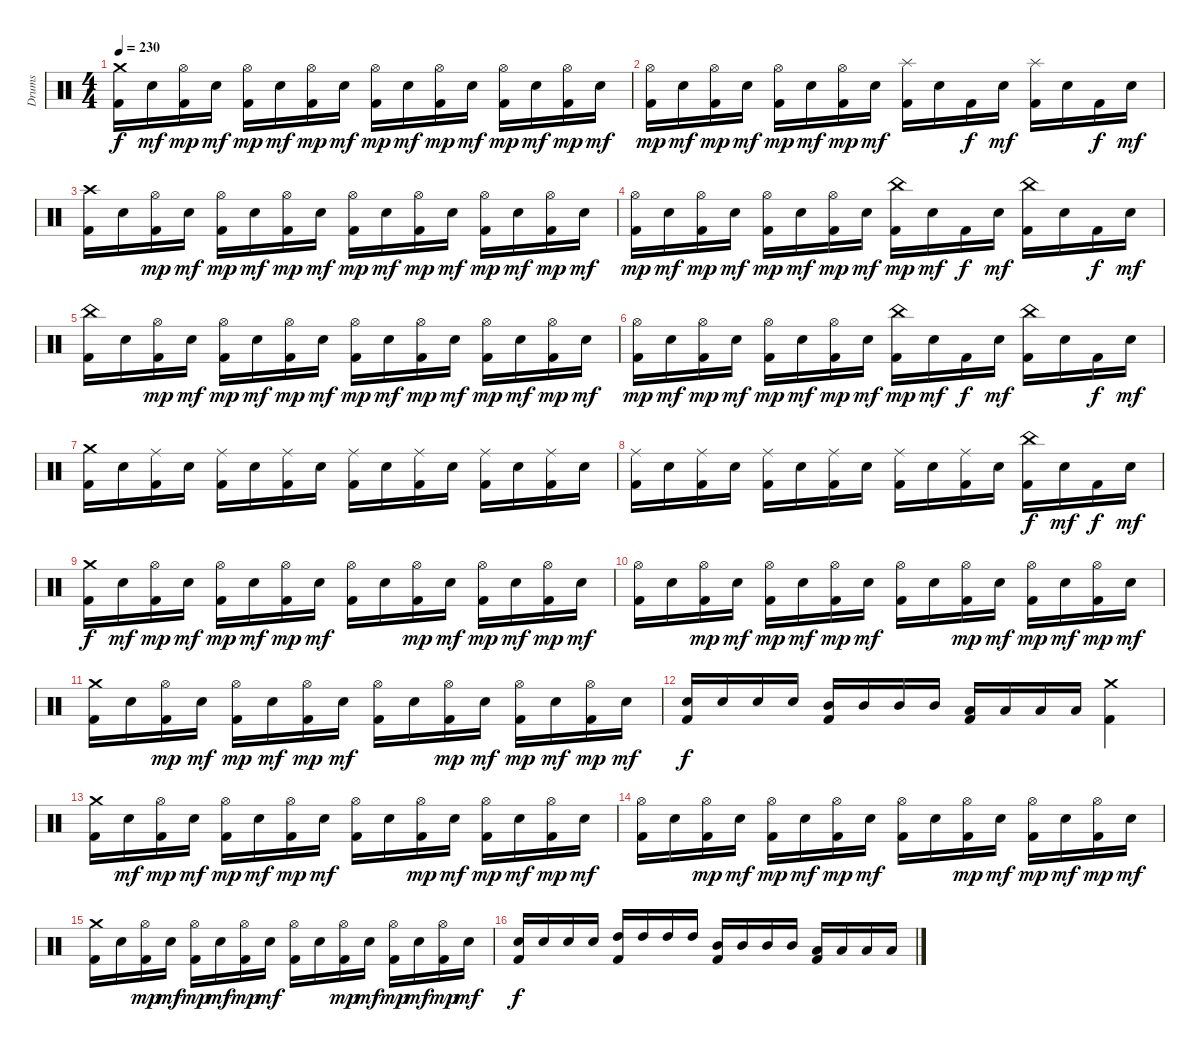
\track ("Drums" "Drums") {instrument percussion}
\staff {score}
\articulation defaults
\ts (4 4)
\tempo 230
\clef neutral
\ks c
("Crash medium (hit)" "Kick (hit) 2").16{dy f} "Electric Snare (hit)".16{dy mf} ("Hi-Hat (open)" "Kick (hit) 2").16{dy mp} "Electric Snare (hit)".16{dy mf} ("Hi-Hat (open)" "Kick (hit) 2").16{dy mp} "Electric Snare (hit)".16{dy mf} ("Hi-Hat (open)" "Kick (hit) 2").16{dy mp} "Electric Snare (hit)".16{dy mf} ("Hi-Hat (open)" "Kick (hit) 2").16{dy mp} "Electric Snare (hit)".16{dy mf} ("Hi-Hat (open)" "Kick (hit) 2").16{dy mp} "Electric Snare (hit)".16{dy mf} ("Hi-Hat (open)" "Kick (hit) 2").16{dy mp} "Electric Snare (hit)".16{dy mf} ("Hi-Hat (open)" "Kick (hit) 2").16{dy mp} "Electric Snare (hit)".16{dy mf} |
("Hi-Hat (open)" "Kick (hit) 2").16{dy mp} "Electric Snare (hit)".16{dy mf} ("Hi-Hat (open)" "Kick (hit) 2").16{dy mp} "Electric Snare (hit)".16{dy mf} ("Hi-Hat (open)" "Kick (hit) 2").16{dy mp} "Electric Snare (hit)".16{dy mf} ("Hi-Hat (open)" "Kick (hit) 2").16{dy mp} "Electric Snare (hit)".16{dy mf} ("Splash (hit)" "Kick (hit) 2").16 "Electric Snare (hit)".16 "Kick (hit) 2".16{dy f} "Electric Snare (hit)".16{dy mf} ("Splash (hit)" "Kick (hit) 2").16 "Electric Snare (hit)".16 "Kick (hit) 2".16{dy f} "Electric Snare (hit)".16{dy mf} |
("Crash high (hit)" "Kick (hit) 2").16 "Electric Snare (hit)".16 ("Hi-Hat (open)" "Kick (hit) 2").16{dy mp} "Electric Snare (hit)".16{dy mf} ("Hi-Hat (open)" "Kick (hit) 2").16{dy mp} "Electric Snare (hit)".16{dy mf} ("Hi-Hat (open)" "Kick (hit) 2").16{dy mp} "Electric Snare (hit)".16{dy mf} ("Hi-Hat (open)" "Kick (hit) 2").16{dy mp} "Electric Snare (hit)".16{dy mf} ("Hi-Hat (open)" "Kick (hit) 2").16{dy mp} "Electric Snare (hit)".16{dy mf} ("Hi-Hat (open)" "Kick (hit) 2").16{dy mp} "Electric Snare (hit)".16{dy mf} ("Hi-Hat (open)" "Kick (hit) 2").16{dy mp} "Electric Snare (hit)".16{dy mf} |
("Hi-Hat (open)" "Kick (hit) 2").16{dy mp} "Electric Snare (hit)".16{dy mf} ("Hi-Hat (open)" "Kick (hit) 2").16{dy mp} "Electric Snare (hit)".16{dy mf} ("Hi-Hat (open)" "Kick (hit) 2").16{dy mp} "Electric Snare (hit)".16{dy mf} ("Hi-Hat (open)" "Kick (hit) 2").16{dy mp} "Electric Snare (hit)".16{dy mf} ("China (hit)" "Kick (hit) 2").16{dy mp} "Electric Snare (hit)".16{dy mf} "Kick (hit) 2".16{dy f} "Electric Snare (hit)".16{dy mf} ("China (hit)" "Kick (hit) 2").16 "Electric Snare (hit)".16 "Kick (hit) 2".16{dy f} "Electric Snare (hit)".16{dy mf} |
("China (hit)" "Kick (hit) 2").16 "Electric Snare (hit)".16 ("Hi-Hat (open)" "Kick (hit) 2").16{dy mp} "Electric Snare (hit)".16{dy mf} ("Hi-Hat (open)" "Kick (hit) 2").16{dy mp} "Electric Snare (hit)".16{dy mf} ("Hi-Hat (open)" "Kick (hit) 2").16{dy mp} "Electric Snare (hit)".16{dy mf} ("Hi-Hat (open)" "Kick (hit) 2").16{dy mp} "Electric Snare (hit)".16{dy mf} ("Hi-Hat (open)" "Kick (hit) 2").16{dy mp} "Electric Snare (hit)".16{dy mf} ("Hi-Hat (open)" "Kick (hit) 2").16{dy mp} "Electric Snare (hit)".16{dy mf} ("Hi-Hat (open)" "Kick (hit) 2").16{dy mp} "Electric Snare (hit)".16{dy mf} |
("Hi-Hat (open)" "Kick (hit) 2").16{dy mp} "Electric Snare (hit)".16{dy mf} ("Hi-Hat (open)" "Kick (hit) 2").16{dy mp} "Electric Snare (hit)".16{dy mf} ("Hi-Hat (open)" "Kick (hit) 2").16{dy mp} "Electric Snare (hit)".16{dy mf} ("Hi-Hat (open)" "Kick (hit) 2").16{dy mp} "Electric Snare (hit)".16{dy mf} ("China (hit)" "Kick (hit) 2").16{dy mp} "Electric Snare (hit)".16{dy mf} "Kick (hit) 2".16{dy f} "Electric Snare (hit)".16{dy mf} ("China (hit)" "Kick (hit) 2").16 "Electric Snare (hit)".16 "Kick (hit) 2".16{dy f} "Electric Snare (hit)".16{dy mf} |
("Crash medium (hit)" "Kick (hit) 2").16 "Electric Snare (hit)".16 ("Ride (middle)" "Kick (hit) 2").16 "Electric Snare (hit)".16 ("Ride (middle)" "Kick (hit) 2").16 "Electric Snare (hit)".16 ("Ride (middle)" "Kick (hit) 2").16 "Electric Snare (hit)".16 ("Ride (middle)" "Kick (hit) 2").16 "Electric Snare (hit)".16 ("Ride (middle)" "Kick (hit) 2").16 "Electric Snare (hit)".16 ("Ride (middle)" "Kick (hit) 2").16 "Electric Snare (hit)".16 ("Ride (middle)" "Kick (hit) 2").16 "Electric Snare (hit)".16 |
("Ride (middle)" "Kick (hit) 2").16 "Electric Snare (hit)".16 ("Ride (middle)" "Kick (hit) 2").16 "Electric Snare (hit)".16 ("Ride (middle)" "Kick (hit) 2").16 "Electric Snare (hit)".16 ("Ride (middle)" "Kick (hit) 2").16 "Electric Snare (hit)".16 ("Ride (middle)" "Kick (hit) 2").16 "Electric Snare (hit)".16 ("Ride (middle)" "Kick (hit) 2").16 "Electric Snare (hit)".16 ("China (hit)" "Kick (hit) 2").16{dy f} "Electric Snare (hit)".16{dy mf} "Kick (hit) 2".16{dy f} "Electric Snare (hit)".16{dy mf} |
("Crash medium (hit)" "Kick (hit) 2").16{dy f} "Electric Snare (hit)".16{dy mf} ("Hi-Hat (open)" "Kick (hit) 2").16{dy mp} "Electric Snare (hit)".16{dy mf} ("Hi-Hat (open)" "Kick (hit) 2").16{dy mp} "Electric Snare (hit)".16{dy mf} ("Hi-Hat (open)" "Kick (hit) 2").16{dy mp} "Electric Snare (hit)".16{dy mf} ("Hi-Hat (open)" "Kick (hit) 2").16 "Electric Snare (hit)".16 ("Hi-Hat (open)" "Kick (hit) 2").16{dy mp} "Electric Snare (hit)".16{dy mf} ("Hi-Hat (open)" "Kick (hit) 2").16{dy mp} "Electric Snare (hit)".16{dy mf} ("Hi-Hat (open)" "Kick (hit) 2").16{dy mp} "Electric Snare (hit)".16{dy mf} |
("Hi-Hat (open)" "Kick (hit) 2").16 "Electric Snare (hit)".16 ("Hi-Hat (open)" "Kick (hit) 2").16{dy mp} "Electric Snare (hit)".16{dy mf} ("Hi-Hat (open)" "Kick (hit) 2").16{dy mp} "Electric Snare (hit)".16{dy mf} ("Hi-Hat (open)" "Kick (hit) 2").16{dy mp} "Electric Snare (hit)".16{dy mf} ("Hi-Hat (open)" "Kick (hit) 2").16 "Electric Snare (hit)".16 ("Hi-Hat (open)" "Kick (hit) 2").16{dy mp} "Electric Snare (hit)".16{dy mf} ("Hi-Hat (open)" "Kick (hit) 2").16{dy mp} "Electric Snare (hit)".16{dy mf} ("Hi-Hat (open)" "Kick (hit) 2").16{dy mp} "Electric Snare (hit)".16{dy mf} |
("Crash medium (hit)" "Kick (hit) 2").16 "Electric Snare (hit)".16 ("Hi-Hat (open)" "Kick (hit) 2").16{dy mp} "Electric Snare (hit)".16{dy mf} ("Hi-Hat (open)" "Kick (hit) 2").16{dy mp} "Electric Snare (hit)".16{dy mf} ("Hi-Hat (open)" "Kick (hit) 2").16{dy mp} "Electric Snare (hit)".16{dy mf} ("Hi-Hat (open)" "Kick (hit) 2").16 "Electric Snare (hit)".16 ("Hi-Hat (open)" "Kick (hit) 2").16{dy mp} "Electric Snare (hit)".16{dy mf} ("Hi-Hat (open)" "Kick (hit) 2").16{dy mp} "Electric Snare (hit)".16{dy mf} ("Hi-Hat (open)" "Kick (hit) 2").16{dy mp} "Electric Snare (hit)".16{dy mf} |
("Electric Snare (hit)" "Kick (hit) 2").16{dy f} "Electric Snare (hit)".16 "Electric Snare (hit)".16 "Electric Snare (hit)".16 ("Mid Tom (hit)" "Kick (hit) 2").16 "Mid Tom (hit)".16 "Mid Tom (hit)".16 "Mid Tom (hit)".16 ("Low Tom (hit)" "Kick (hit) 2").16 "Low Tom (hit)".16 "Low Tom (hit)".16 "Low Tom (hit)".16 ("Crash medium (hit)" "Kick (hit) 2").4 |
("Crash medium (hit)" "Kick (hit) 2").16 "Electric Snare (hit)".16{dy mf} ("Hi-Hat (open)" "Kick (hit) 2").16{dy mp} "Electric Snare (hit)".16{dy mf} ("Hi-Hat (open)" "Kick (hit) 2").16{dy mp} "Electric Snare (hit)".16{dy mf} ("Hi-Hat (open)" "Kick (hit) 2").16{dy mp} "Electric Snare (hit)".16{dy mf} ("Hi-Hat (open)" "Kick (hit) 2").16 "Electric Snare (hit)".16 ("Hi-Hat (open)" "Kick (hit) 2").16{dy mp} "Electric Snare (hit)".16{dy mf} ("Hi-Hat (open)" "Kick (hit) 2").16{dy mp} "Electric Snare (hit)".16{dy mf} ("Hi-Hat (open)" "Kick (hit) 2").16{dy mp} "Electric Snare (hit)".16{dy mf} |
("Hi-Hat (open)" "Kick (hit) 2").16 "Electric Snare (hit)".16 ("Hi-Hat (open)" "Kick (hit) 2").16{dy mp} "Electric Snare (hit)".16{dy mf} ("Hi-Hat (open)" "Kick (hit) 2").16{dy mp} "Electric Snare (hit)".16{dy mf} ("Hi-Hat (open)" "Kick (hit) 2").16{dy mp} "Electric Snare (hit)".16{dy mf} ("Hi-Hat (open)" "Kick (hit) 2").16 "Electric Snare (hit)".16 ("Hi-Hat (open)" "Kick (hit) 2").16{dy mp} "Electric Snare (hit)".16{dy mf} ("Hi-Hat (open)" "Kick (hit) 2").16{dy mp} "Electric Snare (hit)".16{dy mf} ("Hi-Hat (open)" "Kick (hit) 2").16{dy mp} "Electric Snare (hit)".16{dy mf} |
("Crash medium (hit)" "Kick (hit) 2").16 "Electric Snare (hit)".16 ("Hi-Hat (open)" "Kick (hit) 2").16{dy mp} "Electric Snare (hit)".16{dy mf} ("Hi-Hat (open)" "Kick (hit) 2").16{dy mp} "Electric Snare (hit)".16{dy mf} ("Hi-Hat (open)" "Kick (hit) 2").16{dy mp} "Electric Snare (hit)".16{dy mf} ("Hi-Hat (open)" "Kick (hit) 2").16 "Electric Snare (hit)".16 ("Hi-Hat (open)" "Kick (hit) 2").16{dy mp} "Electric Snare (hit)".16{dy mf} ("Hi-Hat (open)" "Kick (hit) 2").16{dy mp} "Electric Snare (hit)".16{dy mf} ("Hi-Hat (open)" "Kick (hit) 2").16{dy mp} "Electric Snare (hit)".16{dy mf} |
("Electric Snare (hit)" "Kick (hit) 2").16{dy f} "Electric Snare (hit)".16 "Electric Snare (hit)".16 "Electric Snare (hit)".16 ("High Tom (hit)" "Kick (hit) 2").16 "High Tom (hit)".16 "High Tom (hit)".16 "High Tom (hit)".16 ("Mid Tom (hit)" "Kick (hit) 2").16 "Mid Tom (hit)".16 "Mid Tom (hit)".16 "Mid Tom (hit)".16 ("Low Tom (hit)" "Kick (hit) 2").16 "Low Tom (hit)".16 "Low Tom (hit)".16 "Low Tom (hit)".16
